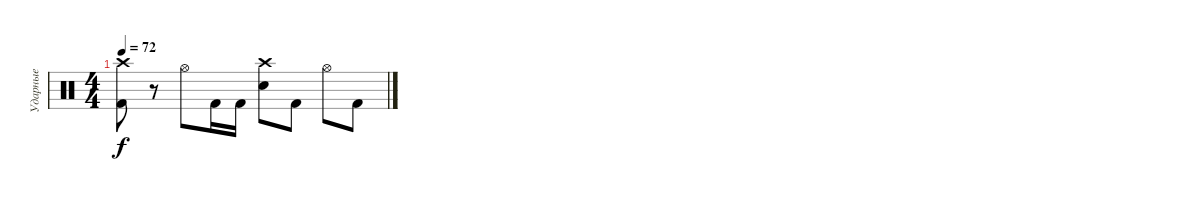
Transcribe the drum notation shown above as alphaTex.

\track ("Ударные" "Ударные") {instrument percussion}
\staff {score}
\articulation defaults
\ts (4 4)
\tempo 72
\clef neutral
\ks c
("Crash high (hit)" "Kick (hit) 2").8{dy f} r.8 "Hi-Hat (open)".8 "Kick (hit) 2".16 "Kick (hit) 2".16 ("Crash high (hit)" "Electric Snare (hit)").8 "Kick (hit) 2".8 "Hi-Hat (open)".8 "Kick (hit) 2".8
